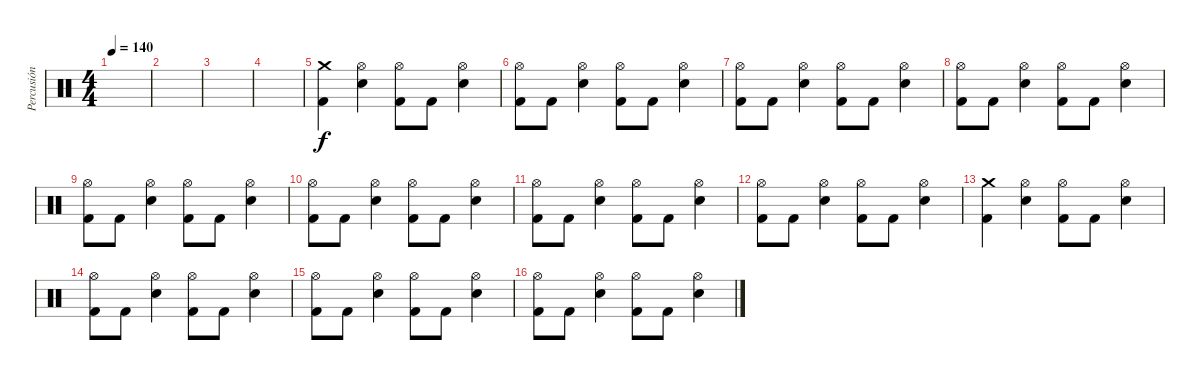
\track ("Percusión" "Percusión") {instrument percussion}
\staff {score}
\articulation defaults
\ts (4 4)
\tempo 140
\clef neutral
\ks c
|
|
|
|
("Crash medium (hit)" "Kick (hit) 2").4 ("Hi-Hat (open)" "Electric Snare (hit)").4 ("Hi-Hat (open)" "Kick (hit) 2").8 "Kick (hit) 2".8 ("Hi-Hat (open)" "Electric Snare (hit)").4 |
("Hi-Hat (open)" "Kick (hit) 2").8 "Kick (hit) 2".8 ("Hi-Hat (open)" "Electric Snare (hit)").4 ("Hi-Hat (open)" "Kick (hit) 2").8 "Kick (hit) 2".8 ("Hi-Hat (open)" "Electric Snare (hit)").4 |
("Hi-Hat (open)" "Kick (hit) 2").8 "Kick (hit) 2".8 ("Hi-Hat (open)" "Electric Snare (hit)").4 ("Hi-Hat (open)" "Kick (hit) 2").8 "Kick (hit) 2".8 ("Hi-Hat (open)" "Electric Snare (hit)").4 |
("Hi-Hat (open)" "Kick (hit) 2").8 "Kick (hit) 2".8 ("Hi-Hat (open)" "Electric Snare (hit)").4 ("Hi-Hat (open)" "Kick (hit) 2").8 "Kick (hit) 2".8 ("Hi-Hat (open)" "Electric Snare (hit)").4 |
("Hi-Hat (open)" "Kick (hit) 2").8 "Kick (hit) 2".8 ("Hi-Hat (open)" "Electric Snare (hit)").4 ("Hi-Hat (open)" "Kick (hit) 2").8 "Kick (hit) 2".8 ("Hi-Hat (open)" "Electric Snare (hit)").4 |
("Hi-Hat (open)" "Kick (hit) 2").8 "Kick (hit) 2".8 ("Hi-Hat (open)" "Electric Snare (hit)").4 ("Hi-Hat (open)" "Kick (hit) 2").8 "Kick (hit) 2".8 ("Hi-Hat (open)" "Electric Snare (hit)").4 |
("Hi-Hat (open)" "Kick (hit) 2").8 "Kick (hit) 2".8 ("Hi-Hat (open)" "Electric Snare (hit)").4 ("Hi-Hat (open)" "Kick (hit) 2").8 "Kick (hit) 2".8 ("Hi-Hat (open)" "Electric Snare (hit)").4 |
("Hi-Hat (open)" "Kick (hit) 2").8 "Kick (hit) 2".8 ("Hi-Hat (open)" "Electric Snare (hit)").4 ("Hi-Hat (open)" "Kick (hit) 2").8 "Kick (hit) 2".8 ("Hi-Hat (open)" "Electric Snare (hit)").4 |
("Crash medium (hit)" "Kick (hit) 2").4 ("Hi-Hat (open)" "Electric Snare (hit)").4 ("Hi-Hat (open)" "Kick (hit) 2").8 "Kick (hit) 2".8 ("Hi-Hat (open)" "Electric Snare (hit)").4 |
("Hi-Hat (open)" "Kick (hit) 2").8 "Kick (hit) 2".8 ("Hi-Hat (open)" "Electric Snare (hit)").4 ("Hi-Hat (open)" "Kick (hit) 2").8 "Kick (hit) 2".8 ("Hi-Hat (open)" "Electric Snare (hit)").4 |
("Hi-Hat (open)" "Kick (hit) 2").8 "Kick (hit) 2".8 ("Hi-Hat (open)" "Electric Snare (hit)").4 ("Hi-Hat (open)" "Kick (hit) 2").8 "Kick (hit) 2".8 ("Hi-Hat (open)" "Electric Snare (hit)").4 |
("Hi-Hat (open)" "Kick (hit) 2").8 "Kick (hit) 2".8 ("Hi-Hat (open)" "Electric Snare (hit)").4 ("Hi-Hat (open)" "Kick (hit) 2").8 "Kick (hit) 2".8 ("Hi-Hat (open)" "Electric Snare (hit)").4
